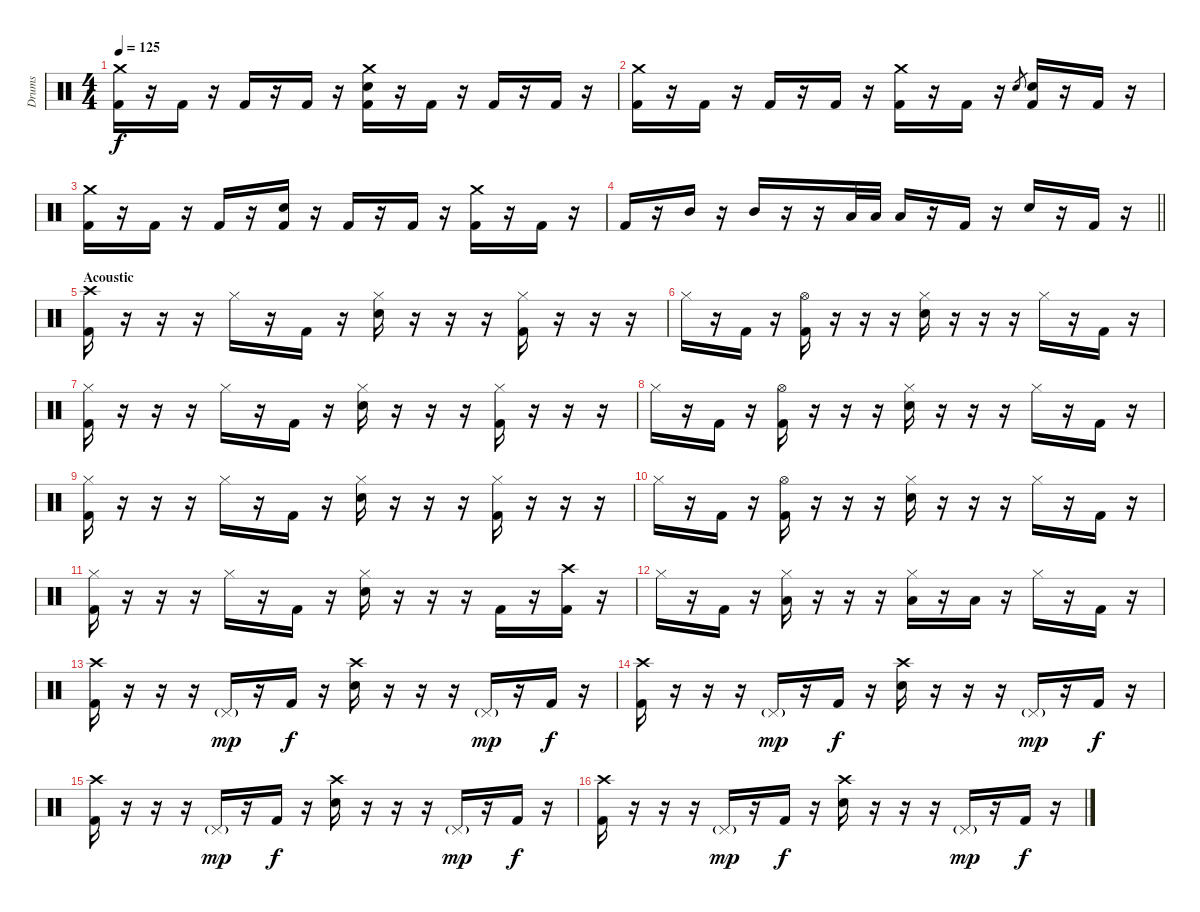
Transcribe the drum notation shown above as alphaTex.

\track ("Drums" "Drums") {instrument percussion}
\staff {score}
\articulation defaults
\ts (4 4)
\tempo 125
\clef neutral
\ks c
("Crash medium (hit)" "Kick (hit) 2").16{dy f} r.16 "Kick (hit) 2".16 r.16 "Kick (hit) 2".16 r.16 "Kick (hit) 2".16 r.16 ("Crash medium (hit)" "Electric Snare (hit)" "Kick (hit) 2").16 r.16 "Kick (hit) 2".16 r.16 "Kick (hit) 2".16 r.16 "Kick (hit) 2".16 r.16 |
("Crash medium (hit)" "Kick (hit) 2").16 r.16 "Kick (hit) 2".16 r.16 "Kick (hit) 2".16 r.16 "Kick (hit) 2".16 r.16 ("Crash medium (hit)" "Kick (hit) 2").16 r.16 "Kick (hit) 2".16 r.16 "Electric Snare (hit)".8{gr} ("Electric Snare (hit)" "Kick (hit) 2").16 r.16 "Kick (hit) 2".16 r.16 |
("Crash medium (hit)" "Kick (hit) 2").16 r.16 "Kick (hit) 2".16 r.16 "Kick (hit) 2".16 r.16 ("Electric Snare (hit)" "Kick (hit) 2").16 r.16 "Kick (hit) 2".16 r.16 "Kick (hit) 2".16 r.16 ("Crash medium (hit)" "Kick (hit) 2").16 r.16 "Kick (hit) 2".16 r.16 |
\barLineRight lightlight "Kick (hit) 2".16
r.16 "Mid Tom (hit)".16 r.16 "Mid Tom (hit)".16 r.16 r.16 "Low Tom (hit)".32 "Low Tom (hit)".32 "Low Tom (hit)".16 r.16 "Kick (hit) 2".16 r.16 "Electric Snare (hit)".16 r.16 "Kick (hit) 2".16 r.16 |
\section ("" "Acoustic")
("Crash high (hit)" "Kick (hit) 2").16 r.16 r.16 r.16 "Hi-Hat (closed)".16 r.16 "Kick (hit) 2".16 r.16 ("Hi-Hat (closed)" "Electric Snare (hit)").16 r.16 r.16 r.16 ("Hi-Hat (closed)" "Kick (hit) 2").16 r.16 r.16 r.16 |
"Hi-Hat (closed)".16 r.16 "Kick (hit) 2".16 r.16 ("Hi-Hat (open)" "Kick (hit) 2").16 r.16 r.16 r.16 ("Hi-Hat (closed)" "Electric Snare (hit)").16 r.16 r.16 r.16 "Hi-Hat (closed)".16 r.16 "Kick (hit) 2".16 r.16 |
("Hi-Hat (closed)" "Kick (hit) 2").16 r.16 r.16 r.16 "Hi-Hat (closed)".16 r.16 "Kick (hit) 2".16 r.16 ("Hi-Hat (closed)" "Electric Snare (hit)").16 r.16 r.16 r.16 ("Hi-Hat (closed)" "Kick (hit) 2").16 r.16 r.16 r.16 |
"Hi-Hat (closed)".16 r.16 "Kick (hit) 2".16 r.16 ("Hi-Hat (open)" "Kick (hit) 2").16 r.16 r.16 r.16 ("Hi-Hat (closed)" "Electric Snare (hit)").16 r.16 r.16 r.16 "Hi-Hat (closed)".16 r.16 "Kick (hit) 2".16 r.16 |
("Hi-Hat (closed)" "Kick (hit) 2").16 r.16 r.16 r.16 "Hi-Hat (closed)".16 r.16 "Kick (hit) 2".16 r.16 ("Hi-Hat (closed)" "Electric Snare (hit)").16 r.16 r.16 r.16 ("Hi-Hat (closed)" "Kick (hit) 2").16 r.16 r.16 r.16 |
"Hi-Hat (closed)".16 r.16 "Kick (hit) 2".16 r.16 ("Hi-Hat (open)" "Kick (hit) 2").16 r.16 r.16 r.16 ("Hi-Hat (closed)" "Electric Snare (hit)").16 r.16 r.16 r.16 "Hi-Hat (closed)".16 r.16 "Kick (hit) 2".16 r.16 |
("Hi-Hat (closed)" "Kick (hit) 2").16 r.16 r.16 r.16 "Hi-Hat (closed)".16 r.16 "Kick (hit) 2".16 r.16 ("Hi-Hat (closed)" "Electric Snare (hit)").16 r.16 r.16 r.16 "Kick (hit) 2".16 r.16 ("Crash high (hit)" "Kick (hit) 2").16 r.16 |
"Hi-Hat (closed)".16 r.16 "Kick (hit) 2".16 r.16 ("Hi-Hat (closed)" "Low Floor Tom (hit)").16 r.16 r.16 r.16 ("Hi-Hat (closed)" "Low Floor Tom (hit)").16 r.16 "Low Floor Tom (hit)".16 r.16 "Hi-Hat (closed)".16 r.16 "Kick (hit) 2".16 r.16 |
("Crash high (hit)" "Kick (hit) 2").16 r.16 r.16 r.16 "Pedal Hi-Hat (hit)"{g}.16{dy mp} r.16 "Kick (hit) 2".16{dy f} r.16 ("Crash high (hit)" "Electric Snare (hit)").16 r.16 r.16 r.16 "Pedal Hi-Hat (hit)"{g}.16{dy mp} r.16 "Kick (hit) 2".16{dy f} r.16 |
("Crash high (hit)" "Kick (hit) 2").16 r.16 r.16 r.16 "Pedal Hi-Hat (hit)"{g}.16{dy mp} r.16 "Kick (hit) 2".16{dy f} r.16 ("Crash high (hit)" "Electric Snare (hit)").16 r.16 r.16 r.16 "Pedal Hi-Hat (hit)"{g}.16{dy mp} r.16 "Kick (hit) 2".16{dy f} r.16 |
("Crash high (hit)" "Kick (hit) 2").16 r.16 r.16 r.16 "Pedal Hi-Hat (hit)"{g}.16{dy mp} r.16 "Kick (hit) 2".16{dy f} r.16 ("Crash high (hit)" "Electric Snare (hit)").16 r.16 r.16 r.16 "Pedal Hi-Hat (hit)"{g}.16{dy mp} r.16 "Kick (hit) 2".16{dy f} r.16 |
("Crash high (hit)" "Kick (hit) 2").16 r.16 r.16 r.16 "Pedal Hi-Hat (hit)"{g}.16{dy mp} r.16 "Kick (hit) 2".16{dy f} r.16 ("Crash high (hit)" "Electric Snare (hit)").16 r.16 r.16 r.16 "Pedal Hi-Hat (hit)"{g}.16{dy mp} r.16 "Kick (hit) 2".16{dy f} r.16
